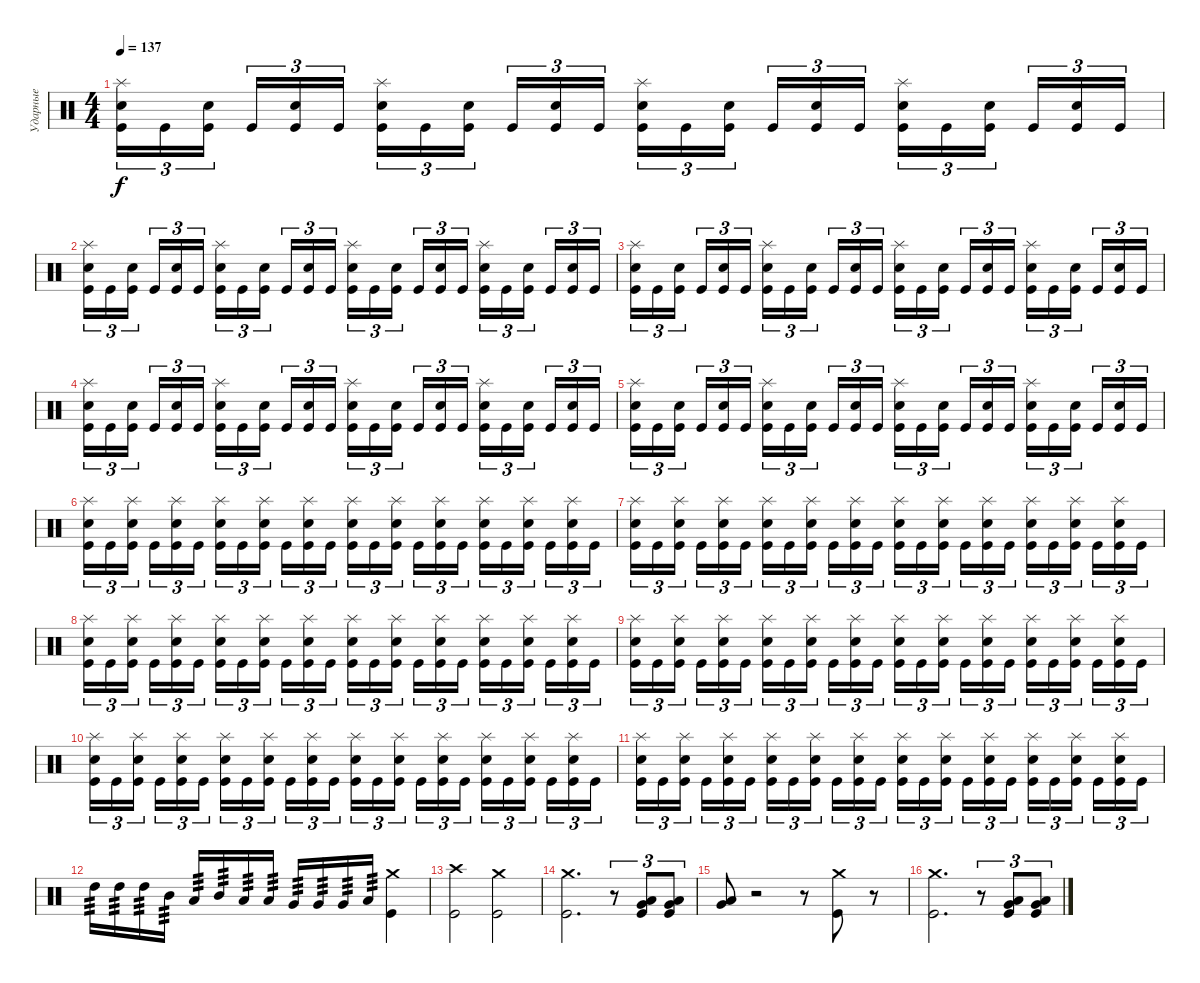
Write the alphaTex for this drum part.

\track ("Ударные" "Ударные") {instrument percussion}
\staff {score}
\articulation defaults
\ts (4 4)
\tempo 137
\clef neutral
\ks c
("Splash (hit)" "Electric Snare (hit)" "Kick (hit)").16{tu (3 2) dy f} "Kick (hit)".16{tu (3 2)} ("Electric Snare (hit)" "Kick (hit)").16{tu (3 2) beam splitsecondary} "Kick (hit)".16{tu (3 2)} ("Electric Snare (hit)" "Kick (hit)").16{tu (3 2)} "Kick (hit)".16{tu (3 2)} ("Splash (hit)" "Electric Snare (hit)" "Kick (hit)").16{tu (3 2)} "Kick (hit)".16{tu (3 2)} ("Electric Snare (hit)" "Kick (hit)").16{tu (3 2) beam splitsecondary} "Kick (hit)".16{tu (3 2)} ("Electric Snare (hit)" "Kick (hit)").16{tu (3 2)} "Kick (hit)".16{tu (3 2)} ("Splash (hit)" "Electric Snare (hit)" "Kick (hit)").16{tu (3 2)} "Kick (hit)".16{tu (3 2)} ("Electric Snare (hit)" "Kick (hit)").16{tu (3 2) beam splitsecondary} "Kick (hit)".16{tu (3 2)} ("Electric Snare (hit)" "Kick (hit)").16{tu (3 2)} "Kick (hit)".16{tu (3 2)} ("Splash (hit)" "Electric Snare (hit)" "Kick (hit)").16{tu (3 2)} "Kick (hit)".16{tu (3 2)} ("Electric Snare (hit)" "Kick (hit)").16{tu (3 2) beam splitsecondary} "Kick (hit)".16{tu (3 2)} ("Electric Snare (hit)" "Kick (hit)").16{tu (3 2)} "Kick (hit)".16{tu (3 2)} |
("Splash (hit)" "Electric Snare (hit)" "Kick (hit)").16{tu (3 2)} "Kick (hit)".16{tu (3 2)} ("Electric Snare (hit)" "Kick (hit)").16{tu (3 2) beam splitsecondary} "Kick (hit)".16{tu (3 2)} ("Electric Snare (hit)" "Kick (hit)").16{tu (3 2)} "Kick (hit)".16{tu (3 2)} ("Splash (hit)" "Electric Snare (hit)" "Kick (hit)").16{tu (3 2)} "Kick (hit)".16{tu (3 2)} ("Electric Snare (hit)" "Kick (hit)").16{tu (3 2) beam splitsecondary} "Kick (hit)".16{tu (3 2)} ("Electric Snare (hit)" "Kick (hit)").16{tu (3 2)} "Kick (hit)".16{tu (3 2)} ("Splash (hit)" "Electric Snare (hit)" "Kick (hit)").16{tu (3 2)} "Kick (hit)".16{tu (3 2)} ("Electric Snare (hit)" "Kick (hit)").16{tu (3 2) beam splitsecondary} "Kick (hit)".16{tu (3 2)} ("Electric Snare (hit)" "Kick (hit)").16{tu (3 2)} "Kick (hit)".16{tu (3 2)} ("Splash (hit)" "Electric Snare (hit)" "Kick (hit)").16{tu (3 2)} "Kick (hit)".16{tu (3 2)} ("Electric Snare (hit)" "Kick (hit)").16{tu (3 2) beam splitsecondary} "Kick (hit)".16{tu (3 2)} ("Electric Snare (hit)" "Kick (hit)").16{tu (3 2)} "Kick (hit)".16{tu (3 2)} |
("Splash (hit)" "Electric Snare (hit)" "Kick (hit)").16{tu (3 2)} "Kick (hit)".16{tu (3 2)} ("Electric Snare (hit)" "Kick (hit)").16{tu (3 2) beam splitsecondary} "Kick (hit)".16{tu (3 2)} ("Electric Snare (hit)" "Kick (hit)").16{tu (3 2)} "Kick (hit)".16{tu (3 2)} ("Splash (hit)" "Electric Snare (hit)" "Kick (hit)").16{tu (3 2)} "Kick (hit)".16{tu (3 2)} ("Electric Snare (hit)" "Kick (hit)").16{tu (3 2) beam splitsecondary} "Kick (hit)".16{tu (3 2)} ("Electric Snare (hit)" "Kick (hit)").16{tu (3 2)} "Kick (hit)".16{tu (3 2)} ("Splash (hit)" "Electric Snare (hit)" "Kick (hit)").16{tu (3 2)} "Kick (hit)".16{tu (3 2)} ("Electric Snare (hit)" "Kick (hit)").16{tu (3 2) beam splitsecondary} "Kick (hit)".16{tu (3 2)} ("Electric Snare (hit)" "Kick (hit)").16{tu (3 2)} "Kick (hit)".16{tu (3 2)} ("Splash (hit)" "Electric Snare (hit)" "Kick (hit)").16{tu (3 2)} "Kick (hit)".16{tu (3 2)} ("Electric Snare (hit)" "Kick (hit)").16{tu (3 2) beam splitsecondary} "Kick (hit)".16{tu (3 2)} ("Electric Snare (hit)" "Kick (hit)").16{tu (3 2)} "Kick (hit)".16{tu (3 2)} |
("Splash (hit)" "Electric Snare (hit)" "Kick (hit)").16{tu (3 2)} "Kick (hit)".16{tu (3 2)} ("Electric Snare (hit)" "Kick (hit)").16{tu (3 2) beam splitsecondary} "Kick (hit)".16{tu (3 2)} ("Electric Snare (hit)" "Kick (hit)").16{tu (3 2)} "Kick (hit)".16{tu (3 2)} ("Splash (hit)" "Electric Snare (hit)" "Kick (hit)").16{tu (3 2)} "Kick (hit)".16{tu (3 2)} ("Electric Snare (hit)" "Kick (hit)").16{tu (3 2) beam splitsecondary} "Kick (hit)".16{tu (3 2)} ("Electric Snare (hit)" "Kick (hit)").16{tu (3 2)} "Kick (hit)".16{tu (3 2)} ("Splash (hit)" "Electric Snare (hit)" "Kick (hit)").16{tu (3 2)} "Kick (hit)".16{tu (3 2)} ("Electric Snare (hit)" "Kick (hit)").16{tu (3 2) beam splitsecondary} "Kick (hit)".16{tu (3 2)} ("Electric Snare (hit)" "Kick (hit)").16{tu (3 2)} "Kick (hit)".16{tu (3 2)} ("Splash (hit)" "Electric Snare (hit)" "Kick (hit)").16{tu (3 2)} "Kick (hit)".16{tu (3 2)} ("Electric Snare (hit)" "Kick (hit)").16{tu (3 2) beam splitsecondary} "Kick (hit)".16{tu (3 2)} ("Electric Snare (hit)" "Kick (hit)").16{tu (3 2)} "Kick (hit)".16{tu (3 2)} |
("Splash (hit)" "Electric Snare (hit)" "Kick (hit)").16{tu (3 2)} "Kick (hit)".16{tu (3 2)} ("Electric Snare (hit)" "Kick (hit)").16{tu (3 2) beam splitsecondary} "Kick (hit)".16{tu (3 2)} ("Electric Snare (hit)" "Kick (hit)").16{tu (3 2)} "Kick (hit)".16{tu (3 2)} ("Splash (hit)" "Electric Snare (hit)" "Kick (hit)").16{tu (3 2)} "Kick (hit)".16{tu (3 2)} ("Electric Snare (hit)" "Kick (hit)").16{tu (3 2) beam splitsecondary} "Kick (hit)".16{tu (3 2)} ("Electric Snare (hit)" "Kick (hit)").16{tu (3 2)} "Kick (hit)".16{tu (3 2)} ("Splash (hit)" "Electric Snare (hit)" "Kick (hit)").16{tu (3 2)} "Kick (hit)".16{tu (3 2)} ("Electric Snare (hit)" "Kick (hit)").16{tu (3 2) beam splitsecondary} "Kick (hit)".16{tu (3 2)} ("Electric Snare (hit)" "Kick (hit)").16{tu (3 2)} "Kick (hit)".16{tu (3 2)} ("Splash (hit)" "Electric Snare (hit)" "Kick (hit)").16{tu (3 2)} "Kick (hit)".16{tu (3 2)} ("Electric Snare (hit)" "Kick (hit)").16{tu (3 2) beam splitsecondary} "Kick (hit)".16{tu (3 2)} ("Electric Snare (hit)" "Kick (hit)").16{tu (3 2)} "Kick (hit)".16{tu (3 2)} |
("Splash (hit)" "Electric Snare (hit)" "Kick (hit)").16{tu (3 2)} "Kick (hit)".16{tu (3 2)} ("Splash (hit)" "Electric Snare (hit)" "Kick (hit)").16{tu (3 2) beam splitsecondary} "Kick (hit)".16{tu (3 2)} ("Splash (hit)" "Electric Snare (hit)" "Kick (hit)").16{tu (3 2)} "Kick (hit)".16{tu (3 2)} ("Splash (hit)" "Electric Snare (hit)" "Kick (hit)").16{tu (3 2)} "Kick (hit)".16{tu (3 2)} ("Splash (hit)" "Electric Snare (hit)" "Kick (hit)").16{tu (3 2) beam splitsecondary} "Kick (hit)".16{tu (3 2)} ("Splash (hit)" "Electric Snare (hit)" "Kick (hit)").16{tu (3 2)} "Kick (hit)".16{tu (3 2)} ("Splash (hit)" "Electric Snare (hit)" "Kick (hit)").16{tu (3 2)} "Kick (hit)".16{tu (3 2)} ("Splash (hit)" "Electric Snare (hit)" "Kick (hit)").16{tu (3 2) beam splitsecondary} "Kick (hit)".16{tu (3 2)} ("Splash (hit)" "Electric Snare (hit)" "Kick (hit)").16{tu (3 2)} "Kick (hit)".16{tu (3 2)} ("Splash (hit)" "Electric Snare (hit)" "Kick (hit)").16{tu (3 2)} "Kick (hit)".16{tu (3 2)} ("Splash (hit)" "Electric Snare (hit)" "Kick (hit)").16{tu (3 2) beam splitsecondary} "Kick (hit)".16{tu (3 2)} ("Splash (hit)" "Electric Snare (hit)" "Kick (hit)").16{tu (3 2)} "Kick (hit)".16{tu (3 2)} |
("Splash (hit)" "Electric Snare (hit)" "Kick (hit)").16{tu (3 2)} "Kick (hit)".16{tu (3 2)} ("Splash (hit)" "Electric Snare (hit)" "Kick (hit)").16{tu (3 2) beam splitsecondary} "Kick (hit)".16{tu (3 2)} ("Splash (hit)" "Electric Snare (hit)" "Kick (hit)").16{tu (3 2)} "Kick (hit)".16{tu (3 2)} ("Splash (hit)" "Electric Snare (hit)" "Kick (hit)").16{tu (3 2)} "Kick (hit)".16{tu (3 2)} ("Splash (hit)" "Electric Snare (hit)" "Kick (hit)").16{tu (3 2) beam splitsecondary} "Kick (hit)".16{tu (3 2)} ("Splash (hit)" "Electric Snare (hit)" "Kick (hit)").16{tu (3 2)} "Kick (hit)".16{tu (3 2)} ("Splash (hit)" "Electric Snare (hit)" "Kick (hit)").16{tu (3 2)} "Kick (hit)".16{tu (3 2)} ("Splash (hit)" "Electric Snare (hit)" "Kick (hit)").16{tu (3 2) beam splitsecondary} "Kick (hit)".16{tu (3 2)} ("Splash (hit)" "Electric Snare (hit)" "Kick (hit)").16{tu (3 2)} "Kick (hit)".16{tu (3 2)} ("Splash (hit)" "Electric Snare (hit)" "Kick (hit)").16{tu (3 2)} "Kick (hit)".16{tu (3 2)} ("Splash (hit)" "Electric Snare (hit)" "Kick (hit)").16{tu (3 2) beam splitsecondary} "Kick (hit)".16{tu (3 2)} ("Splash (hit)" "Electric Snare (hit)" "Kick (hit)").16{tu (3 2)} "Kick (hit)".16{tu (3 2)} |
("Splash (hit)" "Electric Snare (hit)" "Kick (hit)").16{tu (3 2)} "Kick (hit)".16{tu (3 2)} ("Splash (hit)" "Electric Snare (hit)" "Kick (hit)").16{tu (3 2) beam splitsecondary} "Kick (hit)".16{tu (3 2)} ("Splash (hit)" "Electric Snare (hit)" "Kick (hit)").16{tu (3 2)} "Kick (hit)".16{tu (3 2)} ("Splash (hit)" "Electric Snare (hit)" "Kick (hit)").16{tu (3 2)} "Kick (hit)".16{tu (3 2)} ("Splash (hit)" "Electric Snare (hit)" "Kick (hit)").16{tu (3 2) beam splitsecondary} "Kick (hit)".16{tu (3 2)} ("Splash (hit)" "Electric Snare (hit)" "Kick (hit)").16{tu (3 2)} "Kick (hit)".16{tu (3 2)} ("Splash (hit)" "Electric Snare (hit)" "Kick (hit)").16{tu (3 2)} "Kick (hit)".16{tu (3 2)} ("Splash (hit)" "Electric Snare (hit)" "Kick (hit)").16{tu (3 2) beam splitsecondary} "Kick (hit)".16{tu (3 2)} ("Splash (hit)" "Electric Snare (hit)" "Kick (hit)").16{tu (3 2)} "Kick (hit)".16{tu (3 2)} ("Splash (hit)" "Electric Snare (hit)" "Kick (hit)").16{tu (3 2)} "Kick (hit)".16{tu (3 2)} ("Splash (hit)" "Electric Snare (hit)" "Kick (hit)").16{tu (3 2) beam splitsecondary} "Kick (hit)".16{tu (3 2)} ("Splash (hit)" "Electric Snare (hit)" "Kick (hit)").16{tu (3 2)} "Kick (hit)".16{tu (3 2)} |
("Splash (hit)" "Electric Snare (hit)" "Kick (hit)").16{tu (3 2)} "Kick (hit)".16{tu (3 2)} ("Splash (hit)" "Electric Snare (hit)" "Kick (hit)").16{tu (3 2) beam splitsecondary} "Kick (hit)".16{tu (3 2)} ("Splash (hit)" "Electric Snare (hit)" "Kick (hit)").16{tu (3 2)} "Kick (hit)".16{tu (3 2)} ("Splash (hit)" "Electric Snare (hit)" "Kick (hit)").16{tu (3 2)} "Kick (hit)".16{tu (3 2)} ("Splash (hit)" "Electric Snare (hit)" "Kick (hit)").16{tu (3 2) beam splitsecondary} "Kick (hit)".16{tu (3 2)} ("Splash (hit)" "Electric Snare (hit)" "Kick (hit)").16{tu (3 2)} "Kick (hit)".16{tu (3 2)} ("Splash (hit)" "Electric Snare (hit)" "Kick (hit)").16{tu (3 2)} "Kick (hit)".16{tu (3 2)} ("Splash (hit)" "Electric Snare (hit)" "Kick (hit)").16{tu (3 2) beam splitsecondary} "Kick (hit)".16{tu (3 2)} ("Splash (hit)" "Electric Snare (hit)" "Kick (hit)").16{tu (3 2)} "Kick (hit)".16{tu (3 2)} ("Splash (hit)" "Electric Snare (hit)" "Kick (hit)").16{tu (3 2)} "Kick (hit)".16{tu (3 2)} ("Splash (hit)" "Electric Snare (hit)" "Kick (hit)").16{tu (3 2) beam splitsecondary} "Kick (hit)".16{tu (3 2)} ("Splash (hit)" "Electric Snare (hit)" "Kick (hit)").16{tu (3 2)} "Kick (hit)".16{tu (3 2)} |
("Splash (hit)" "Electric Snare (hit)" "Kick (hit)").16{tu (3 2)} "Kick (hit)".16{tu (3 2)} ("Splash (hit)" "Electric Snare (hit)" "Kick (hit)").16{tu (3 2) beam splitsecondary} "Kick (hit)".16{tu (3 2)} ("Splash (hit)" "Electric Snare (hit)" "Kick (hit)").16{tu (3 2)} "Kick (hit)".16{tu (3 2)} ("Splash (hit)" "Electric Snare (hit)" "Kick (hit)").16{tu (3 2)} "Kick (hit)".16{tu (3 2)} ("Splash (hit)" "Electric Snare (hit)" "Kick (hit)").16{tu (3 2) beam splitsecondary} "Kick (hit)".16{tu (3 2)} ("Splash (hit)" "Electric Snare (hit)" "Kick (hit)").16{tu (3 2)} "Kick (hit)".16{tu (3 2)} ("Splash (hit)" "Electric Snare (hit)" "Kick (hit)").16{tu (3 2)} "Kick (hit)".16{tu (3 2)} ("Splash (hit)" "Electric Snare (hit)" "Kick (hit)").16{tu (3 2) beam splitsecondary} "Kick (hit)".16{tu (3 2)} ("Splash (hit)" "Electric Snare (hit)" "Kick (hit)").16{tu (3 2)} "Kick (hit)".16{tu (3 2)} ("Splash (hit)" "Electric Snare (hit)" "Kick (hit)").16{tu (3 2)} "Kick (hit)".16{tu (3 2)} ("Splash (hit)" "Electric Snare (hit)" "Kick (hit)").16{tu (3 2) beam splitsecondary} "Kick (hit)".16{tu (3 2)} ("Splash (hit)" "Electric Snare (hit)" "Kick (hit)").16{tu (3 2)} "Kick (hit)".16{tu (3 2)} |
("Splash (hit)" "Electric Snare (hit)" "Kick (hit)").16{tu (3 2)} "Kick (hit)".16{tu (3 2)} ("Splash (hit)" "Electric Snare (hit)" "Kick (hit)").16{tu (3 2) beam splitsecondary} "Kick (hit)".16{tu (3 2)} ("Splash (hit)" "Electric Snare (hit)" "Kick (hit)").16{tu (3 2)} "Kick (hit)".16{tu (3 2)} ("Splash (hit)" "Electric Snare (hit)" "Kick (hit)").16{tu (3 2)} "Kick (hit)".16{tu (3 2)} ("Splash (hit)" "Electric Snare (hit)" "Kick (hit)").16{tu (3 2) beam splitsecondary} "Kick (hit)".16{tu (3 2)} ("Splash (hit)" "Electric Snare (hit)" "Kick (hit)").16{tu (3 2)} "Kick (hit)".16{tu (3 2)} ("Splash (hit)" "Electric Snare (hit)" "Kick (hit)").16{tu (3 2)} "Kick (hit)".16{tu (3 2)} ("Splash (hit)" "Electric Snare (hit)" "Kick (hit)").16{tu (3 2) beam splitsecondary} "Kick (hit)".16{tu (3 2)} ("Splash (hit)" "Electric Snare (hit)" "Kick (hit)").16{tu (3 2)} "Kick (hit)".16{tu (3 2)} ("Splash (hit)" "Electric Snare (hit)" "Kick (hit)").16{tu (3 2)} "Kick (hit)".16{tu (3 2)} ("Splash (hit)" "Electric Snare (hit)" "Kick (hit)").16{tu (3 2) beam splitsecondary} "Kick (hit)".16{tu (3 2)} ("Splash (hit)" "Electric Snare (hit)" "Kick (hit)").16{tu (3 2)} "Kick (hit)".16{tu (3 2)} |
"High Tom (hit)".16{tp 3} "High Tom (hit)".16{tp 3} "High Tom (hit)".16{tp 3} "Mid Tom (hit)".16{tp 3} "Low Tom (hit)".16{tp 3} "Mid Tom (hit)".16{tp 3} "Low Tom (hit)".16{tp 3} "Low Tom (hit)".16{tp 3} "Very Low Tom (hit)".16{tp 3} "Very Low Tom (hit)".16{tp 3} "Very Low Tom (hit)".16{tp 3} "Low Floor Tom (hit)".16{tp 3} ("Crash medium (hit)" "Kick (hit)").4 |
("Crash high (hit)" "Kick (hit)").2 ("Crash medium (hit)" "Kick (hit)").2 |
("Crash medium (hit)" "Kick (hit)").2{d} r.8{tu (3 2)} ("Very Low Tom (hit)" "Low Floor Tom (hit)" "Kick (hit)").8{tu (3 2)} ("Very Low Tom (hit)" "Low Floor Tom (hit)" "Kick (hit)").8{tu (3 2)} |
("Very Low Tom (hit)" "Low Floor Tom (hit)").8 r.2 r.8 ("Kick (hit)" "Crash medium (hit)").8 r.8 |
("Crash medium (hit)" "Kick (hit)").2{d} r.8{tu (3 2)} ("Very Low Tom (hit)" "Low Floor Tom (hit)" "Kick (hit)").8{tu (3 2)} ("Very Low Tom (hit)" "Low Floor Tom (hit)" "Kick (hit)").8{tu (3 2)}
